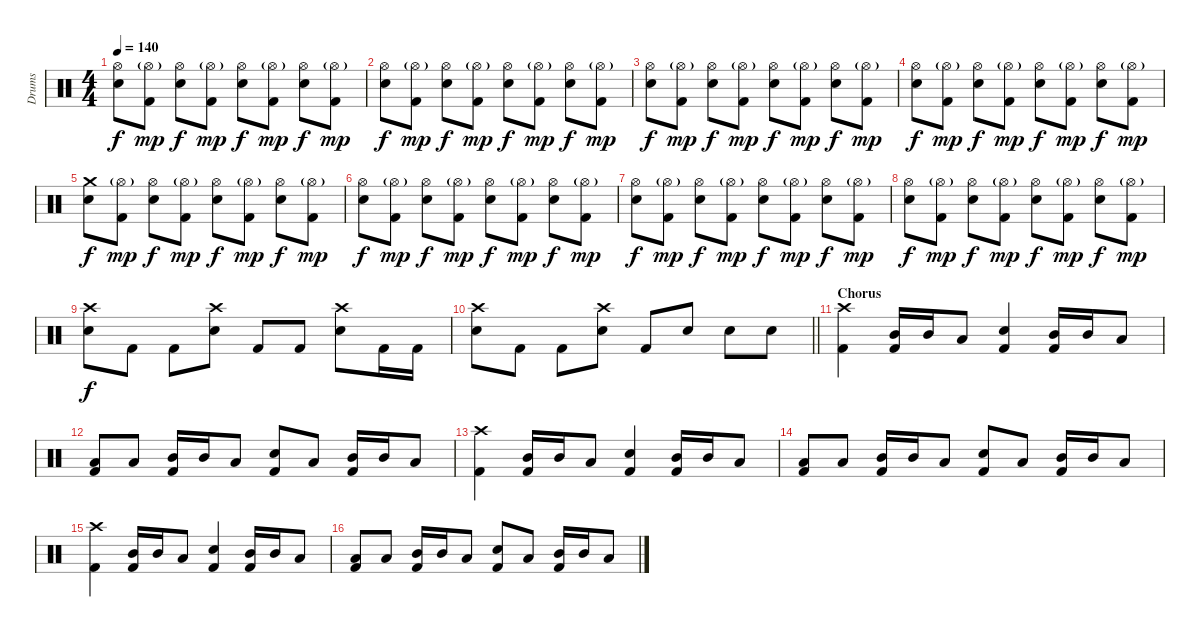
\track ("Drums" "Drums") {instrument percussion}
\staff {score}
\articulation defaults
\ts (4 4)
\tempo 140
\clef neutral
\ks c
("Hi-Hat (open)" "Snare (hit) 2").8{dy f} ("Hi-Hat (open)"{g} "Kick (hit) 2").8{dy mp} ("Hi-Hat (open)" "Snare (hit) 2").8{dy f} ("Hi-Hat (open)"{g} "Kick (hit) 2").8{dy mp} ("Hi-Hat (open)" "Snare (hit) 2").8{dy f} ("Hi-Hat (open)"{g} "Kick (hit) 2").8{dy mp} ("Hi-Hat (open)" "Snare (hit) 2").8{dy f} ("Hi-Hat (open)"{g} "Kick (hit) 2").8{dy mp} |
("Hi-Hat (open)" "Snare (hit) 2").8{dy f} ("Hi-Hat (open)"{g} "Kick (hit) 2").8{dy mp} ("Hi-Hat (open)" "Snare (hit) 2").8{dy f} ("Hi-Hat (open)"{g} "Kick (hit) 2").8{dy mp} ("Hi-Hat (open)" "Snare (hit) 2").8{dy f} ("Hi-Hat (open)"{g} "Kick (hit) 2").8{dy mp} ("Hi-Hat (open)" "Snare (hit) 2").8{dy f} ("Hi-Hat (open)"{g} "Kick (hit) 2").8{dy mp} |
("Hi-Hat (open)" "Snare (hit) 2").8{dy f} ("Hi-Hat (open)"{g} "Kick (hit) 2").8{dy mp} ("Hi-Hat (open)" "Snare (hit) 2").8{dy f} ("Hi-Hat (open)"{g} "Kick (hit) 2").8{dy mp} ("Hi-Hat (open)" "Snare (hit) 2").8{dy f} ("Hi-Hat (open)"{g} "Kick (hit) 2").8{dy mp} ("Hi-Hat (open)" "Snare (hit) 2").8{dy f} ("Hi-Hat (open)"{g} "Kick (hit) 2").8{dy mp} |
("Hi-Hat (open)" "Snare (hit) 2").8{dy f} ("Hi-Hat (open)"{g} "Kick (hit) 2").8{dy mp} ("Hi-Hat (open)" "Snare (hit) 2").8{dy f} ("Hi-Hat (open)"{g} "Kick (hit) 2").8{dy mp} ("Hi-Hat (open)" "Snare (hit) 2").8{dy f} ("Hi-Hat (open)"{g} "Kick (hit) 2").8{dy mp} ("Hi-Hat (open)" "Snare (hit) 2").8{dy f} ("Hi-Hat (open)"{g} "Kick (hit) 2").8{dy mp} |
("Crash medium (hit)" "Snare (hit) 2").8{dy f} ("Hi-Hat (open)"{g} "Kick (hit) 2").8{dy mp} ("Hi-Hat (open)" "Snare (hit) 2").8{dy f} ("Hi-Hat (open)"{g} "Kick (hit) 2").8{dy mp} ("Hi-Hat (open)" "Snare (hit) 2").8{dy f} ("Hi-Hat (open)"{g} "Kick (hit) 2").8{dy mp} ("Hi-Hat (open)" "Snare (hit) 2").8{dy f} ("Hi-Hat (open)"{g} "Kick (hit) 2").8{dy mp} |
("Hi-Hat (open)" "Snare (hit) 2").8{dy f} ("Hi-Hat (open)"{g} "Kick (hit) 2").8{dy mp} ("Hi-Hat (open)" "Snare (hit) 2").8{dy f} ("Hi-Hat (open)"{g} "Kick (hit) 2").8{dy mp} ("Hi-Hat (open)" "Snare (hit) 2").8{dy f} ("Hi-Hat (open)"{g} "Kick (hit) 2").8{dy mp} ("Hi-Hat (open)" "Snare (hit) 2").8{dy f} ("Hi-Hat (open)"{g} "Kick (hit) 2").8{dy mp} |
("Hi-Hat (open)" "Snare (hit) 2").8{dy f} ("Hi-Hat (open)"{g} "Kick (hit) 2").8{dy mp} ("Hi-Hat (open)" "Snare (hit) 2").8{dy f} ("Hi-Hat (open)"{g} "Kick (hit) 2").8{dy mp} ("Hi-Hat (open)" "Snare (hit) 2").8{dy f} ("Hi-Hat (open)"{g} "Kick (hit) 2").8{dy mp} ("Hi-Hat (open)" "Snare (hit) 2").8{dy f} ("Hi-Hat (open)"{g} "Kick (hit) 2").8{dy mp} |
("Hi-Hat (open)" "Snare (hit) 2").8{dy f} ("Hi-Hat (open)"{g} "Kick (hit) 2").8{dy mp} ("Hi-Hat (open)" "Snare (hit) 2").8{dy f} ("Hi-Hat (open)"{g} "Kick (hit) 2").8{dy mp} ("Hi-Hat (open)" "Snare (hit) 2").8{dy f} ("Hi-Hat (open)"{g} "Kick (hit) 2").8{dy mp} ("Hi-Hat (open)" "Snare (hit) 2").8{dy f} ("Hi-Hat (open)"{g} "Kick (hit) 2").8{dy mp} |
("Crash high (hit)" "Snare (hit) 2").8{dy f} "Kick (hit) 2".8 "Kick (hit) 2".8 ("Crash high (hit)" "Snare (hit) 2").8 "Kick (hit) 2".8 "Kick (hit) 2".8 ("Crash high (hit)" "Snare (hit) 2").8 "Kick (hit) 2".16 "Kick (hit) 2".16 |
\barLineRight lightlight
("Crash high (hit)" "Snare (hit) 2").8 "Kick (hit) 2".8 "Kick (hit) 2".8 ("Crash high (hit)" "Snare (hit) 2").8 "Kick (hit) 2".8 "Snare (hit) 2".8 "Snare (hit) 2".8 "Snare (hit) 2".8 |
\section ("" "Chorus")
("Crash high (hit)" "Kick (hit) 2").4 ("Mid Tom (hit)" "Kick (hit) 2").16 "Mid Tom (hit)".16 "Low Tom (hit)".8 ("Snare (hit) 2" "Kick (hit) 2").4 ("Mid Tom (hit)" "Kick (hit) 2").16 "Mid Tom (hit)".16 "Low Tom (hit)".8 |
("Low Tom (hit)" "Kick (hit) 2").8 "Low Tom (hit)".8 ("Mid Tom (hit)" "Kick (hit) 2").16 "Mid Tom (hit)".16 "Low Tom (hit)".8 ("Snare (hit) 2" "Kick (hit) 2").8 "Low Tom (hit)".8 ("Mid Tom (hit)" "Kick (hit) 2").16 "Mid Tom (hit)".16 "Low Tom (hit)".8 |
("Crash high (hit)" "Kick (hit) 2").4 ("Mid Tom (hit)" "Kick (hit) 2").16 "Mid Tom (hit)".16 "Low Tom (hit)".8 ("Snare (hit) 2" "Kick (hit) 2").4 ("Mid Tom (hit)" "Kick (hit) 2").16 "Mid Tom (hit)".16 "Low Tom (hit)".8 |
("Low Tom (hit)" "Kick (hit) 2").8 "Low Tom (hit)".8 ("Mid Tom (hit)" "Kick (hit) 2").16 "Mid Tom (hit)".16 "Low Tom (hit)".8 ("Snare (hit) 2" "Kick (hit) 2").8 "Low Tom (hit)".8 ("Mid Tom (hit)" "Kick (hit) 2").16 "Mid Tom (hit)".16 "Low Tom (hit)".8 |
("Crash high (hit)" "Kick (hit) 2").4 ("Mid Tom (hit)" "Kick (hit) 2").16 "Mid Tom (hit)".16 "Low Tom (hit)".8 ("Snare (hit) 2" "Kick (hit) 2").4 ("Mid Tom (hit)" "Kick (hit) 2").16 "Mid Tom (hit)".16 "Low Tom (hit)".8 |
("Low Tom (hit)" "Kick (hit) 2").8 "Low Tom (hit)".8 ("Mid Tom (hit)" "Kick (hit) 2").16 "Mid Tom (hit)".16 "Low Tom (hit)".8 ("Snare (hit) 2" "Kick (hit) 2").8 "Low Tom (hit)".8 ("Mid Tom (hit)" "Kick (hit) 2").16 "Mid Tom (hit)".16 "Low Tom (hit)".8
